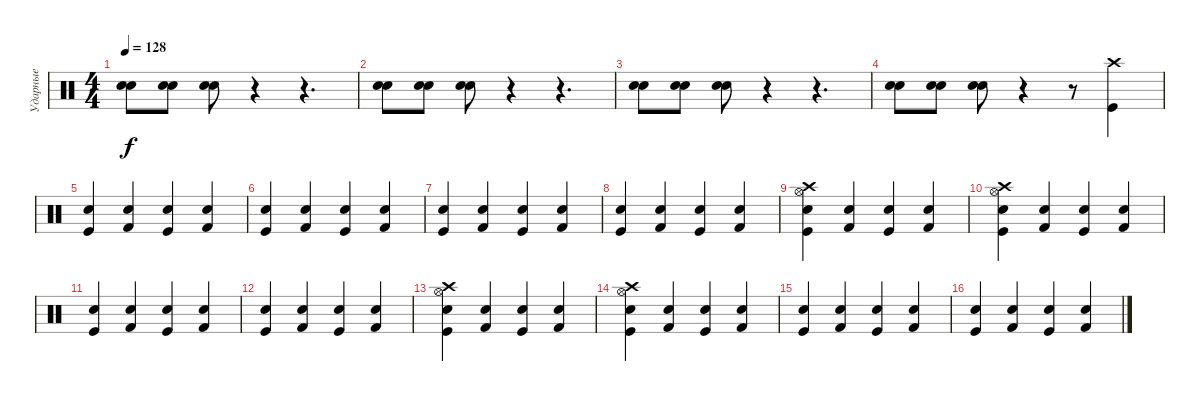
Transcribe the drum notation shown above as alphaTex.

\track ("Ударные" "Ударные") {instrument percussion}
\staff {score}
\articulation defaults
\ts (4 4)
\tempo 128
\clef neutral
\ks c
("Snare (hit) 2" "Electric Snare (hit)").8{dy f} ("Snare (hit) 2" "Electric Snare (hit)").8 ("Snare (hit) 2" "Electric Snare (hit)").8 r.4 r.4{d} |
("Snare (hit) 2" "Electric Snare (hit)").8 ("Snare (hit) 2" "Electric Snare (hit)").8 ("Snare (hit) 2" "Electric Snare (hit)").8 r.4 r.4{d} |
("Snare (hit) 2" "Electric Snare (hit)").8 ("Snare (hit) 2" "Electric Snare (hit)").8 ("Snare (hit) 2" "Electric Snare (hit)").8 r.4 r.4{d} |
("Snare (hit) 2" "Electric Snare (hit)").8 ("Snare (hit) 2" "Electric Snare (hit)").8 ("Snare (hit) 2" "Electric Snare (hit)").8 r.4 r.8 ("Kick (hit)" "Crash high (hit)").4 |
("Kick (hit)" "Electric Snare (hit)").4 ("Kick (hit) 2" "Snare (hit) 2").4 ("Kick (hit)" "Electric Snare (hit)").4 ("Kick (hit) 2" "Snare (hit) 2").4 |
("Kick (hit)" "Electric Snare (hit)").4 ("Kick (hit) 2" "Snare (hit) 2").4 ("Kick (hit)" "Electric Snare (hit)").4 ("Kick (hit) 2" "Snare (hit) 2").4 |
("Kick (hit)" "Electric Snare (hit)").4 ("Kick (hit) 2" "Snare (hit) 2").4 ("Kick (hit)" "Electric Snare (hit)").4 ("Kick (hit) 2" "Snare (hit) 2").4 |
("Kick (hit)" "Electric Snare (hit)").4 ("Kick (hit) 2" "Snare (hit) 2").4 ("Kick (hit)" "Electric Snare (hit)").4 ("Kick (hit) 2" "Snare (hit) 2").4 |
("Kick (hit)" "Electric Snare (hit)" "Crash high (hit)" "Hi-Hat (open)").4 ("Kick (hit) 2" "Snare (hit) 2").4 ("Kick (hit)" "Electric Snare (hit)").4 ("Kick (hit) 2" "Snare (hit) 2").4 |
("Kick (hit)" "Electric Snare (hit)" "Crash high (hit)" "Hi-Hat (open)").4 ("Kick (hit) 2" "Snare (hit) 2").4 ("Kick (hit)" "Electric Snare (hit)").4 ("Kick (hit) 2" "Snare (hit) 2").4 |
("Kick (hit)" "Electric Snare (hit)").4 ("Kick (hit) 2" "Snare (hit) 2").4 ("Kick (hit)" "Electric Snare (hit)").4 ("Kick (hit) 2" "Snare (hit) 2").4 |
("Kick (hit)" "Electric Snare (hit)").4 ("Kick (hit) 2" "Snare (hit) 2").4 ("Kick (hit)" "Electric Snare (hit)").4 ("Kick (hit) 2" "Snare (hit) 2").4 |
("Kick (hit)" "Electric Snare (hit)" "Crash high (hit)" "Hi-Hat (open)").4 ("Kick (hit) 2" "Snare (hit) 2").4 ("Kick (hit)" "Electric Snare (hit)").4 ("Kick (hit) 2" "Snare (hit) 2").4 |
("Kick (hit)" "Electric Snare (hit)" "Crash high (hit)" "Hi-Hat (open)").4 ("Kick (hit) 2" "Snare (hit) 2").4 ("Kick (hit)" "Electric Snare (hit)").4 ("Kick (hit) 2" "Snare (hit) 2").4 |
("Kick (hit)" "Electric Snare (hit)").4 ("Kick (hit) 2" "Snare (hit) 2").4 ("Kick (hit)" "Electric Snare (hit)").4 ("Kick (hit) 2" "Snare (hit) 2").4 |
("Kick (hit)" "Electric Snare (hit)").4 ("Kick (hit) 2" "Snare (hit) 2").4 ("Kick (hit)" "Electric Snare (hit)").4 ("Kick (hit) 2" "Snare (hit) 2").4
